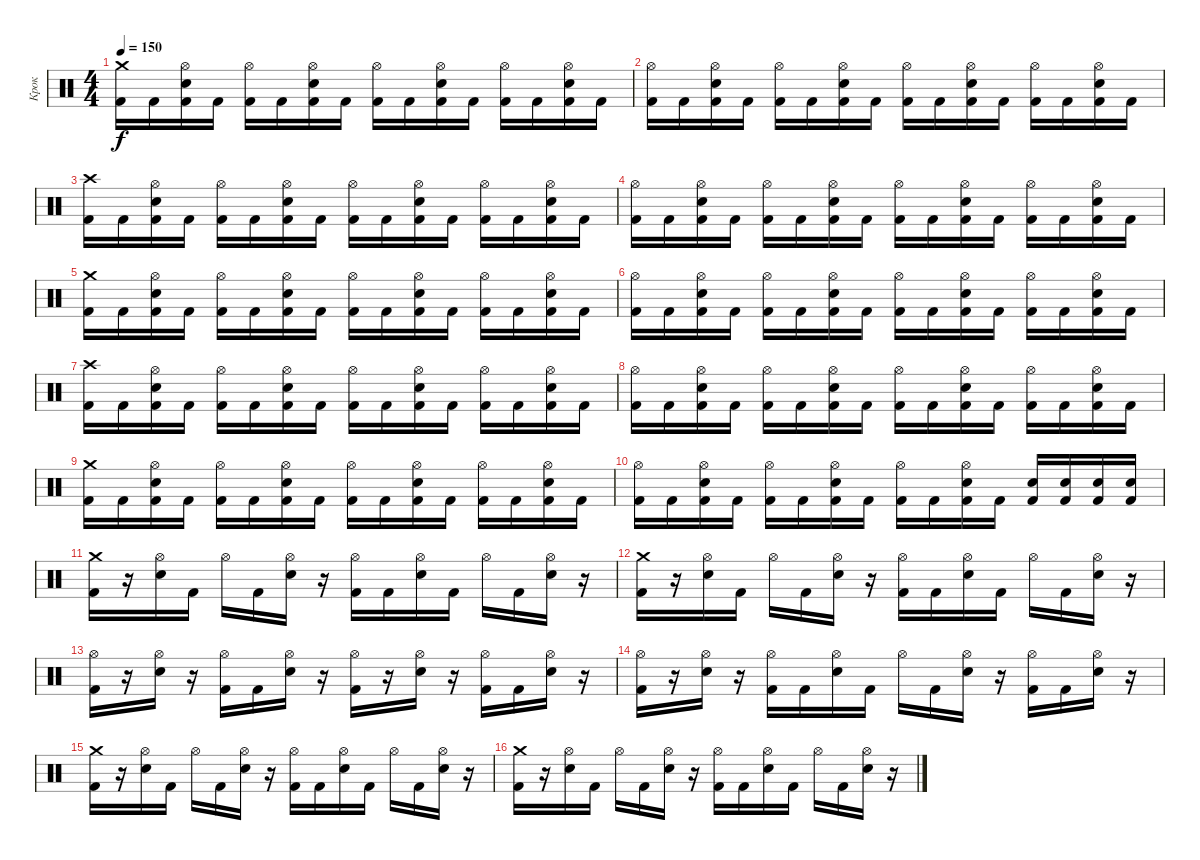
\track ("Крок" "Крок") {instrument percussion}
\staff {score}
\articulation defaults
\ts (4 4)
\tempo 150
\clef neutral
\ks c
("Crash medium (hit)" "Kick (hit) 2").16{dy f} "Kick (hit) 2".16 ("Hi-Hat (open)" "Electric Snare (hit)" "Kick (hit) 2").16 "Kick (hit) 2".16 ("Hi-Hat (open)" "Kick (hit) 2").16 "Kick (hit) 2".16 ("Hi-Hat (open)" "Electric Snare (hit)" "Kick (hit) 2").16 "Kick (hit) 2".16 ("Hi-Hat (open)" "Kick (hit) 2").16 "Kick (hit) 2".16 ("Hi-Hat (open)" "Electric Snare (hit)" "Kick (hit) 2").16 "Kick (hit) 2".16 ("Hi-Hat (open)" "Kick (hit) 2").16 "Kick (hit) 2".16 ("Hi-Hat (open)" "Electric Snare (hit)" "Kick (hit) 2").16 "Kick (hit) 2".16 |
("Hi-Hat (open)" "Kick (hit) 2").16 "Kick (hit) 2".16 ("Hi-Hat (open)" "Electric Snare (hit)" "Kick (hit) 2").16 "Kick (hit) 2".16 ("Hi-Hat (open)" "Kick (hit) 2").16 "Kick (hit) 2".16 ("Hi-Hat (open)" "Electric Snare (hit)" "Kick (hit) 2").16 "Kick (hit) 2".16 ("Hi-Hat (open)" "Kick (hit) 2").16 "Kick (hit) 2".16 ("Hi-Hat (open)" "Electric Snare (hit)" "Kick (hit) 2").16 "Kick (hit) 2".16 ("Hi-Hat (open)" "Kick (hit) 2").16 "Kick (hit) 2".16 ("Hi-Hat (open)" "Electric Snare (hit)" "Kick (hit) 2").16 "Kick (hit) 2".16 |
("Crash high (hit)" "Kick (hit) 2").16 "Kick (hit) 2".16 ("Hi-Hat (open)" "Electric Snare (hit)" "Kick (hit) 2").16 "Kick (hit) 2".16 ("Hi-Hat (open)" "Kick (hit) 2").16 "Kick (hit) 2".16 ("Hi-Hat (open)" "Electric Snare (hit)" "Kick (hit) 2").16 "Kick (hit) 2".16 ("Hi-Hat (open)" "Kick (hit) 2").16 "Kick (hit) 2".16 ("Hi-Hat (open)" "Electric Snare (hit)" "Kick (hit) 2").16 "Kick (hit) 2".16 ("Hi-Hat (open)" "Kick (hit) 2").16 "Kick (hit) 2".16 ("Hi-Hat (open)" "Electric Snare (hit)" "Kick (hit) 2").16 "Kick (hit) 2".16 |
("Hi-Hat (open)" "Kick (hit) 2").16 "Kick (hit) 2".16 ("Hi-Hat (open)" "Electric Snare (hit)" "Kick (hit) 2").16 "Kick (hit) 2".16 ("Hi-Hat (open)" "Kick (hit) 2").16 "Kick (hit) 2".16 ("Hi-Hat (open)" "Electric Snare (hit)" "Kick (hit) 2").16 "Kick (hit) 2".16 ("Hi-Hat (open)" "Kick (hit) 2").16 "Kick (hit) 2".16 ("Hi-Hat (open)" "Electric Snare (hit)" "Kick (hit) 2").16 "Kick (hit) 2".16 ("Hi-Hat (open)" "Kick (hit) 2").16 "Kick (hit) 2".16 ("Hi-Hat (open)" "Electric Snare (hit)" "Kick (hit) 2").16 "Kick (hit) 2".16 |
("Crash medium (hit)" "Kick (hit) 2").16 "Kick (hit) 2".16 ("Hi-Hat (open)" "Electric Snare (hit)" "Kick (hit) 2").16 "Kick (hit) 2".16 ("Hi-Hat (open)" "Kick (hit) 2").16 "Kick (hit) 2".16 ("Hi-Hat (open)" "Electric Snare (hit)" "Kick (hit) 2").16 "Kick (hit) 2".16 ("Hi-Hat (open)" "Kick (hit) 2").16 "Kick (hit) 2".16 ("Hi-Hat (open)" "Electric Snare (hit)" "Kick (hit) 2").16 "Kick (hit) 2".16 ("Hi-Hat (open)" "Kick (hit) 2").16 "Kick (hit) 2".16 ("Hi-Hat (open)" "Electric Snare (hit)" "Kick (hit) 2").16 "Kick (hit) 2".16 |
("Hi-Hat (open)" "Kick (hit) 2").16 "Kick (hit) 2".16 ("Hi-Hat (open)" "Electric Snare (hit)" "Kick (hit) 2").16 "Kick (hit) 2".16 ("Hi-Hat (open)" "Kick (hit) 2").16 "Kick (hit) 2".16 ("Hi-Hat (open)" "Electric Snare (hit)" "Kick (hit) 2").16 "Kick (hit) 2".16 ("Hi-Hat (open)" "Kick (hit) 2").16 "Kick (hit) 2".16 ("Hi-Hat (open)" "Electric Snare (hit)" "Kick (hit) 2").16 "Kick (hit) 2".16 ("Hi-Hat (open)" "Kick (hit) 2").16 "Kick (hit) 2".16 ("Hi-Hat (open)" "Electric Snare (hit)" "Kick (hit) 2").16 "Kick (hit) 2".16 |
("Crash high (hit)" "Kick (hit) 2").16 "Kick (hit) 2".16 ("Hi-Hat (open)" "Electric Snare (hit)" "Kick (hit) 2").16 "Kick (hit) 2".16 ("Hi-Hat (open)" "Kick (hit) 2").16 "Kick (hit) 2".16 ("Hi-Hat (open)" "Electric Snare (hit)" "Kick (hit) 2").16 "Kick (hit) 2".16 ("Hi-Hat (open)" "Kick (hit) 2").16 "Kick (hit) 2".16 ("Hi-Hat (open)" "Electric Snare (hit)" "Kick (hit) 2").16 "Kick (hit) 2".16 ("Hi-Hat (open)" "Kick (hit) 2").16 "Kick (hit) 2".16 ("Hi-Hat (open)" "Electric Snare (hit)" "Kick (hit) 2").16 "Kick (hit) 2".16 |
("Hi-Hat (open)" "Kick (hit) 2").16 "Kick (hit) 2".16 ("Hi-Hat (open)" "Electric Snare (hit)" "Kick (hit) 2").16 "Kick (hit) 2".16 ("Hi-Hat (open)" "Kick (hit) 2").16 "Kick (hit) 2".16 ("Hi-Hat (open)" "Electric Snare (hit)" "Kick (hit) 2").16 "Kick (hit) 2".16 ("Hi-Hat (open)" "Kick (hit) 2").16 "Kick (hit) 2".16 ("Hi-Hat (open)" "Electric Snare (hit)" "Kick (hit) 2").16 "Kick (hit) 2".16 ("Hi-Hat (open)" "Kick (hit) 2").16 "Kick (hit) 2".16 ("Hi-Hat (open)" "Electric Snare (hit)" "Kick (hit) 2").16 "Kick (hit) 2".16 |
("Crash medium (hit)" "Kick (hit) 2").16 "Kick (hit) 2".16 ("Hi-Hat (open)" "Electric Snare (hit)" "Kick (hit) 2").16 "Kick (hit) 2".16 ("Hi-Hat (open)" "Kick (hit) 2").16 "Kick (hit) 2".16 ("Hi-Hat (open)" "Electric Snare (hit)" "Kick (hit) 2").16 "Kick (hit) 2".16 ("Hi-Hat (open)" "Kick (hit) 2").16 "Kick (hit) 2".16 ("Hi-Hat (open)" "Electric Snare (hit)" "Kick (hit) 2").16 "Kick (hit) 2".16 ("Hi-Hat (open)" "Kick (hit) 2").16 "Kick (hit) 2".16 ("Hi-Hat (open)" "Electric Snare (hit)" "Kick (hit) 2").16 "Kick (hit) 2".16 |
("Hi-Hat (open)" "Kick (hit) 2").16 "Kick (hit) 2".16 ("Hi-Hat (open)" "Electric Snare (hit)" "Kick (hit) 2").16 "Kick (hit) 2".16 ("Hi-Hat (open)" "Kick (hit) 2").16 "Kick (hit) 2".16 ("Hi-Hat (open)" "Electric Snare (hit)" "Kick (hit) 2").16 "Kick (hit) 2".16 ("Hi-Hat (open)" "Kick (hit) 2").16 "Kick (hit) 2".16 ("Hi-Hat (open)" "Electric Snare (hit)" "Kick (hit) 2").16 "Kick (hit) 2".16 ("Electric Snare (hit)" "Kick (hit) 2").16 ("Electric Snare (hit)" "Kick (hit) 2").16 ("Electric Snare (hit)" "Kick (hit) 2").16 ("Electric Snare (hit)" "Kick (hit) 2").16 |
("Crash medium (hit)" "Kick (hit) 2").16 r.16 ("Hi-Hat (open)" "Electric Snare (hit)").16 "Kick (hit) 2".16 "Hi-Hat (open)".16 "Kick (hit) 2".16 ("Hi-Hat (open)" "Electric Snare (hit)").16 r.16 ("Hi-Hat (open)" "Kick (hit) 2").16 "Kick (hit) 2".16 ("Hi-Hat (open)" "Electric Snare (hit)").16 "Kick (hit) 2".16 "Hi-Hat (open)".16 "Kick (hit) 2".16 ("Hi-Hat (open)" "Electric Snare (hit)").16 r.16 |
("Crash medium (hit)" "Kick (hit) 2").16 r.16 ("Hi-Hat (open)" "Electric Snare (hit)").16 "Kick (hit) 2".16 "Hi-Hat (open)".16 "Kick (hit) 2".16 ("Hi-Hat (open)" "Electric Snare (hit)").16 r.16 ("Hi-Hat (open)" "Kick (hit) 2").16 "Kick (hit) 2".16 ("Hi-Hat (open)" "Electric Snare (hit)").16 "Kick (hit) 2".16 "Hi-Hat (open)".16 "Kick (hit) 2".16 ("Hi-Hat (open)" "Electric Snare (hit)").16 r.16 |
("Hi-Hat (open)" "Kick (hit) 2").16 r.16 ("Hi-Hat (open)" "Electric Snare (hit)").16 r.16 ("Hi-Hat (open)" "Kick (hit) 2").16 "Kick (hit) 2".16 ("Hi-Hat (open)" "Electric Snare (hit)").16 r.16 ("Hi-Hat (open)" "Kick (hit) 2").16 r.16 ("Hi-Hat (open)" "Electric Snare (hit)").16 r.16 ("Hi-Hat (open)" "Kick (hit) 2").16 "Kick (hit) 2".16 ("Hi-Hat (open)" "Electric Snare (hit)").16 r.16 |
("Hi-Hat (open)" "Kick (hit) 2").16 r.16 ("Hi-Hat (open)" "Electric Snare (hit)").16 r.16 ("Hi-Hat (open)" "Kick (hit) 2").16 "Kick (hit) 2".16 ("Hi-Hat (open)" "Electric Snare (hit)").16 "Kick (hit) 2".16 "Hi-Hat (open)".16 "Kick (hit) 2".16 ("Hi-Hat (open)" "Electric Snare (hit)").16 r.16 ("Hi-Hat (open)" "Kick (hit) 2").16 "Kick (hit) 2".16 ("Hi-Hat (open)" "Electric Snare (hit)").16 r.16 |
("Crash medium (hit)" "Kick (hit) 2").16 r.16 ("Hi-Hat (open)" "Electric Snare (hit)").16 "Kick (hit) 2".16 "Hi-Hat (open)".16 "Kick (hit) 2".16 ("Hi-Hat (open)" "Electric Snare (hit)").16 r.16 ("Hi-Hat (open)" "Kick (hit) 2").16 "Kick (hit) 2".16 ("Hi-Hat (open)" "Electric Snare (hit)").16 "Kick (hit) 2".16 "Hi-Hat (open)".16 "Kick (hit) 2".16 ("Hi-Hat (open)" "Electric Snare (hit)").16 r.16 |
("Crash medium (hit)" "Kick (hit) 2").16 r.16 ("Hi-Hat (open)" "Electric Snare (hit)").16 "Kick (hit) 2".16 "Hi-Hat (open)".16 "Kick (hit) 2".16 ("Hi-Hat (open)" "Electric Snare (hit)").16 r.16 ("Hi-Hat (open)" "Kick (hit) 2").16 "Kick (hit) 2".16 ("Hi-Hat (open)" "Electric Snare (hit)").16 "Kick (hit) 2".16 "Hi-Hat (open)".16 "Kick (hit) 2".16 ("Hi-Hat (open)" "Electric Snare (hit)").16 r.16
